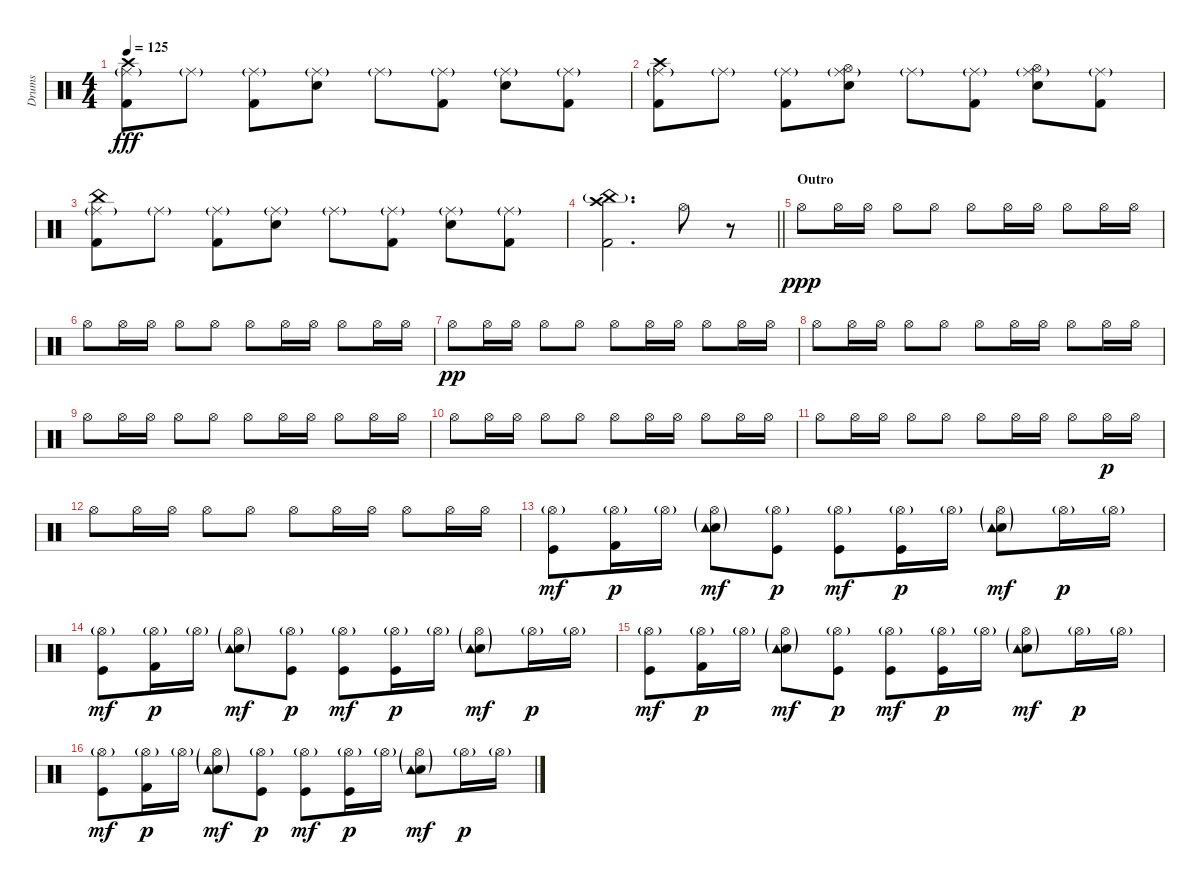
\track ("Drums" "Drums") {instrument percussion}
\staff
\articulation defaults
\ts (4 4)
\tempo 125
\clef neutral
\ks c
("Crash high (hit)" "Kick (hit) 2" "Ride (middle)"{g}).8{dy fff} "Ride (middle)"{g}.8 ("Kick (hit) 2" "Ride (middle)"{g}).8 ("Snare (hit) 2" "Ride (middle)"{g}).8 "Ride (middle)"{g}.8 ("Kick (hit) 2" "Ride (middle)"{g}).8 ("Snare (hit) 2" "Ride (middle)"{g}).8 ("Kick (hit) 2" "Ride (middle)"{g}).8 |
("Crash high (hit)" "Kick (hit) 2" "Ride (middle)"{g}).8 "Ride (middle)"{g}.8 ("Kick (hit) 2" "Ride (middle)"{g}).8 ("Snare (hit) 2" "Hi-Hat (open)" "Ride (middle)"{g}).8 "Ride (middle)"{g}.8 ("Kick (hit) 2" "Ride (middle)"{g}).8 ("Snare (hit) 2" "Hi-Hat (open)" "Ride (middle)"{g}).8 ("Kick (hit) 2" "Ride (middle)"{g}).8 |
("China (hit)" "Kick (hit) 2" "Ride (middle)"{g}).8 "Ride (middle)"{g}.8 ("Kick (hit) 2" "Ride (middle)"{g}).8 ("Snare (hit) 2" "Ride (middle)"{g}).8 "Ride (middle)"{g}.8 ("Kick (hit) 2" "Ride (middle)"{g}).8 ("Snare (hit) 2" "Ride (middle)"{g}).8 ("Kick (hit) 2" "Ride (middle)"{g}).8 |
\barLineRight lightlight
("Crash high (hit)" "Kick (hit) 2" "China (hit)"{g}).2{d} "Hi-Hat (open)".8 r.8 |
\section ("" "Outro")
"Hi-Hat (open)".8{dy ppp} "Hi-Hat (open)".16 "Hi-Hat (open)".16 "Hi-Hat (open)".8 "Hi-Hat (open)".8 "Hi-Hat (open)".8 "Hi-Hat (open)".16 "Hi-Hat (open)".16 "Hi-Hat (open)".8 "Hi-Hat (open)".16 "Hi-Hat (open)".16 |
"Hi-Hat (open)".8 "Hi-Hat (open)".16 "Hi-Hat (open)".16 "Hi-Hat (open)".8 "Hi-Hat (open)".8 "Hi-Hat (open)".8 "Hi-Hat (open)".16 "Hi-Hat (open)".16 "Hi-Hat (open)".8 "Hi-Hat (open)".16 "Hi-Hat (open)".16 |
"Hi-Hat (open)".8{dy pp} "Hi-Hat (open)".16 "Hi-Hat (open)".16 "Hi-Hat (open)".8 "Hi-Hat (open)".8 "Hi-Hat (open)".8 "Hi-Hat (open)".16 "Hi-Hat (open)".16 "Hi-Hat (open)".8 "Hi-Hat (open)".16 "Hi-Hat (open)".16 |
"Hi-Hat (open)".8 "Hi-Hat (open)".16 "Hi-Hat (open)".16 "Hi-Hat (open)".8 "Hi-Hat (open)".8 "Hi-Hat (open)".8 "Hi-Hat (open)".16 "Hi-Hat (open)".16 "Hi-Hat (open)".8 "Hi-Hat (open)".16 "Hi-Hat (open)".16 |
"Hi-Hat (open)".8 "Hi-Hat (open)".16 "Hi-Hat (open)".16 "Hi-Hat (open)".8 "Hi-Hat (open)".8 "Hi-Hat (open)".8 "Hi-Hat (open)".16 "Hi-Hat (open)".16 "Hi-Hat (open)".8 "Hi-Hat (open)".16 "Hi-Hat (open)".16 |
"Hi-Hat (open)".8 "Hi-Hat (open)".16 "Hi-Hat (open)".16 "Hi-Hat (open)".8 "Hi-Hat (open)".8 "Hi-Hat (open)".8 "Hi-Hat (open)".16 "Hi-Hat (open)".16 "Hi-Hat (open)".8 "Hi-Hat (open)".16 "Hi-Hat (open)".16 |
"Hi-Hat (open)".8 "Hi-Hat (open)".16 "Hi-Hat (open)".16 "Hi-Hat (open)".8 "Hi-Hat (open)".8 "Hi-Hat (open)".8 "Hi-Hat (open)".16 "Hi-Hat (open)".16 "Hi-Hat (open)".8 "Hi-Hat (open)".16{dy p} "Hi-Hat (open)".16 |
"Hi-Hat (open)".8 "Hi-Hat (open)".16 "Hi-Hat (open)".16 "Hi-Hat (open)".8 "Hi-Hat (open)".8 "Hi-Hat (open)".8 "Hi-Hat (open)".16 "Hi-Hat (open)".16 "Hi-Hat (open)".8 "Hi-Hat (open)".16 "Hi-Hat (open)".16 |
("Hi-Hat (open)"{g} "Kick (hit)").8{dy mf} ("Hi-Hat (open)"{g} "Kick (hit) 2").16{dy p} "Hi-Hat (open)"{g}.16 ("Hi-Hat (open)"{g} "Snare (hit) 2"{g} "Tambourine (hit)").8{dy mf} ("Hi-Hat (open)"{g} "Kick (hit)").8{dy p} ("Hi-Hat (open)"{g} "Kick (hit)").8{dy mf} ("Hi-Hat (open)"{g} "Kick (hit)").16{dy p} "Hi-Hat (open)"{g}.16 ("Hi-Hat (open)"{g} "Snare (hit) 2"{g} "Tambourine (hit)").8{dy mf} "Hi-Hat (open)"{g}.16{dy p} "Hi-Hat (open)"{g}.16 |
("Hi-Hat (open)"{g} "Kick (hit)").8{dy mf} ("Hi-Hat (open)"{g} "Kick (hit) 2").16{dy p} "Hi-Hat (open)"{g}.16 ("Hi-Hat (open)"{g} "Snare (hit) 2"{g} "Tambourine (hit)").8{dy mf} ("Hi-Hat (open)"{g} "Kick (hit)").8{dy p} ("Hi-Hat (open)"{g} "Kick (hit)").8{dy mf} ("Hi-Hat (open)"{g} "Kick (hit)").16{dy p} "Hi-Hat (open)"{g}.16 ("Hi-Hat (open)"{g} "Snare (hit) 2"{g} "Tambourine (hit)").8{dy mf} "Hi-Hat (open)"{g}.16{dy p} "Hi-Hat (open)"{g}.16 |
("Hi-Hat (open)"{g} "Kick (hit)").8{dy mf} ("Hi-Hat (open)"{g} "Kick (hit) 2").16{dy p} "Hi-Hat (open)"{g}.16 ("Hi-Hat (open)"{g} "Snare (hit) 2"{g} "Tambourine (hit)").8{dy mf} ("Hi-Hat (open)"{g} "Kick (hit)").8{dy p} ("Hi-Hat (open)"{g} "Kick (hit)").8{dy mf} ("Hi-Hat (open)"{g} "Kick (hit)").16{dy p} "Hi-Hat (open)"{g}.16 ("Hi-Hat (open)"{g} "Snare (hit) 2"{g} "Tambourine (hit)").8{dy mf} "Hi-Hat (open)"{g}.16{dy p} "Hi-Hat (open)"{g}.16 |
("Hi-Hat (open)"{g} "Kick (hit)").8{dy mf} ("Hi-Hat (open)"{g} "Kick (hit) 2").16{dy p} "Hi-Hat (open)"{g}.16 ("Hi-Hat (open)"{g} "Snare (hit) 2"{g} "Tambourine (hit)").8{dy mf} ("Hi-Hat (open)"{g} "Kick (hit)").8{dy p} ("Hi-Hat (open)"{g} "Kick (hit)").8{dy mf} ("Hi-Hat (open)"{g} "Kick (hit)").16{dy p} "Hi-Hat (open)"{g}.16 ("Hi-Hat (open)"{g} "Snare (hit) 2"{g} "Tambourine (hit)").8{dy mf} "Hi-Hat (open)"{g}.16{dy p} "Hi-Hat (open)"{g}.16
